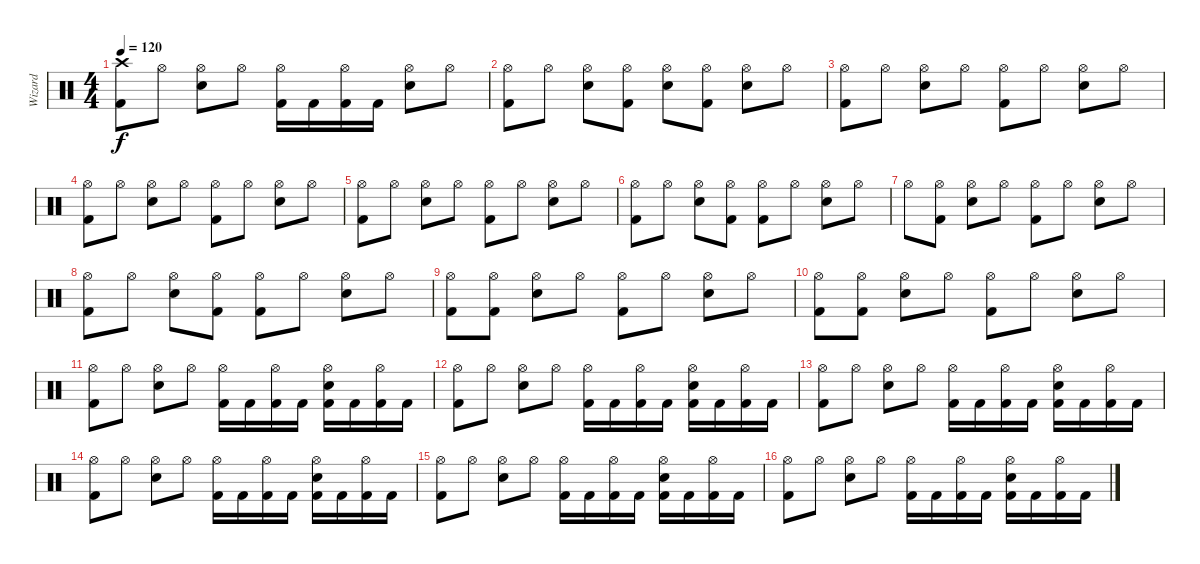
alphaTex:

\track ("Wizard" "Wizard") {instrument percussion}
\staff {score}
\articulation defaults
\ts (4 4)
\tempo 120
\clef neutral
\ks c
("Crash high (hit)" "Kick (hit) 2").8{dy f} "Hi-Hat (open)".8 ("Hi-Hat (open)" "Snare (hit) 2").8 "Hi-Hat (open)".8 ("Hi-Hat (open)" "Kick (hit) 2").16 "Kick (hit) 2".16 ("Hi-Hat (open)" "Kick (hit) 2").16 "Kick (hit) 2".16 ("Hi-Hat (open)" "Snare (hit) 2").8 "Hi-Hat (open)".8 |
("Hi-Hat (open)" "Kick (hit) 2").8 "Hi-Hat (open)".8 ("Hi-Hat (open)" "Snare (hit) 2").8 ("Hi-Hat (open)" "Kick (hit) 2").8 ("Hi-Hat (open)" "Snare (hit) 2").8 ("Hi-Hat (open)" "Kick (hit) 2").8 ("Hi-Hat (open)" "Snare (hit) 2").8 "Hi-Hat (open)".8 |
("Hi-Hat (open)" "Kick (hit) 2").8 "Hi-Hat (open)".8 ("Hi-Hat (open)" "Snare (hit) 2").8 "Hi-Hat (open)".8 ("Hi-Hat (open)" "Kick (hit) 2").8 "Hi-Hat (open)".8 ("Hi-Hat (open)" "Snare (hit) 2").8 "Hi-Hat (open)".8 |
("Hi-Hat (open)" "Kick (hit) 2").8 "Hi-Hat (open)".8 ("Hi-Hat (open)" "Snare (hit) 2").8 "Hi-Hat (open)".8 ("Hi-Hat (open)" "Kick (hit) 2").8 "Hi-Hat (open)".8 ("Hi-Hat (open)" "Snare (hit) 2").8 "Hi-Hat (open)".8 |
("Hi-Hat (open)" "Kick (hit) 2").8 "Hi-Hat (open)".8 ("Hi-Hat (open)" "Snare (hit) 2").8 "Hi-Hat (open)".8 ("Hi-Hat (open)" "Kick (hit) 2").8 "Hi-Hat (open)".8 ("Hi-Hat (open)" "Snare (hit) 2").8 "Hi-Hat (open)".8 |
("Hi-Hat (open)" "Kick (hit) 2").8 "Hi-Hat (open)".8 ("Hi-Hat (open)" "Snare (hit) 2").8 ("Hi-Hat (open)" "Kick (hit) 2").8 ("Hi-Hat (open)" "Kick (hit) 2").8 "Hi-Hat (open)".8 ("Hi-Hat (open)" "Snare (hit) 2").8 "Hi-Hat (open)".8 |
"Hi-Hat (open)".8 ("Hi-Hat (open)" "Kick (hit) 2").8 ("Hi-Hat (open)" "Snare (hit) 2").8 "Hi-Hat (open)".8 ("Hi-Hat (open)" "Kick (hit) 2").8 "Hi-Hat (open)".8 ("Hi-Hat (open)" "Snare (hit) 2").8 "Hi-Hat (open)".8 |
("Hi-Hat (open)" "Kick (hit) 2").8 "Hi-Hat (open)".8 ("Hi-Hat (open)" "Snare (hit) 2").8 ("Hi-Hat (open)" "Kick (hit) 2").8 ("Hi-Hat (open)" "Kick (hit) 2").8 "Hi-Hat (open)".8 ("Hi-Hat (open)" "Snare (hit) 2").8 "Hi-Hat (open)".8 |
("Hi-Hat (open)" "Kick (hit) 2").8 ("Hi-Hat (open)" "Kick (hit) 2").8 ("Hi-Hat (open)" "Snare (hit) 2").8 "Hi-Hat (open)".8 ("Hi-Hat (open)" "Kick (hit) 2").8 "Hi-Hat (open)".8 ("Hi-Hat (open)" "Snare (hit) 2").8 "Hi-Hat (open)".8 |
("Hi-Hat (open)" "Kick (hit) 2").8 ("Hi-Hat (open)" "Kick (hit) 2").8 ("Hi-Hat (open)" "Snare (hit) 2").8 "Hi-Hat (open)".8 ("Hi-Hat (open)" "Kick (hit) 2").8 "Hi-Hat (open)".8 ("Hi-Hat (open)" "Snare (hit) 2").8 "Hi-Hat (open)".8 |
("Hi-Hat (open)" "Kick (hit) 2").8 "Hi-Hat (open)".8 ("Hi-Hat (open)" "Snare (hit) 2").8 "Hi-Hat (open)".8 ("Hi-Hat (open)" "Kick (hit) 2").16 "Kick (hit) 2".16 ("Hi-Hat (open)" "Kick (hit) 2").16 "Kick (hit) 2".16 ("Hi-Hat (open)" "Snare (hit) 2" "Kick (hit) 2").16 "Kick (hit) 2".16 ("Hi-Hat (open)" "Kick (hit) 2").16 "Kick (hit) 2".16 |
("Hi-Hat (open)" "Kick (hit) 2").8 "Hi-Hat (open)".8 ("Hi-Hat (open)" "Snare (hit) 2").8 "Hi-Hat (open)".8 ("Hi-Hat (open)" "Kick (hit) 2").16 "Kick (hit) 2".16 ("Hi-Hat (open)" "Kick (hit) 2").16 "Kick (hit) 2".16 ("Hi-Hat (open)" "Snare (hit) 2" "Kick (hit) 2").16 "Kick (hit) 2".16 ("Hi-Hat (open)" "Kick (hit) 2").16 "Kick (hit) 2".16 |
("Hi-Hat (open)" "Kick (hit) 2").8 "Hi-Hat (open)".8 ("Hi-Hat (open)" "Snare (hit) 2").8 "Hi-Hat (open)".8 ("Hi-Hat (open)" "Kick (hit) 2").16 "Kick (hit) 2".16 ("Hi-Hat (open)" "Kick (hit) 2").16 "Kick (hit) 2".16 ("Hi-Hat (open)" "Snare (hit) 2" "Kick (hit) 2").16 "Kick (hit) 2".16 ("Hi-Hat (open)" "Kick (hit) 2").16 "Kick (hit) 2".16 |
("Hi-Hat (open)" "Kick (hit) 2").8 "Hi-Hat (open)".8 ("Hi-Hat (open)" "Snare (hit) 2").8 "Hi-Hat (open)".8 ("Hi-Hat (open)" "Kick (hit) 2").16 "Kick (hit) 2".16 ("Hi-Hat (open)" "Kick (hit) 2").16 "Kick (hit) 2".16 ("Hi-Hat (open)" "Snare (hit) 2" "Kick (hit) 2").16 "Kick (hit) 2".16 ("Hi-Hat (open)" "Kick (hit) 2").16 "Kick (hit) 2".16 |
("Hi-Hat (open)" "Kick (hit) 2").8 "Hi-Hat (open)".8 ("Hi-Hat (open)" "Snare (hit) 2").8 "Hi-Hat (open)".8 ("Hi-Hat (open)" "Kick (hit) 2").16 "Kick (hit) 2".16 ("Hi-Hat (open)" "Kick (hit) 2").16 "Kick (hit) 2".16 ("Hi-Hat (open)" "Snare (hit) 2" "Kick (hit) 2").16 "Kick (hit) 2".16 ("Hi-Hat (open)" "Kick (hit) 2").16 "Kick (hit) 2".16 |
("Hi-Hat (open)" "Kick (hit) 2").8 "Hi-Hat (open)".8 ("Hi-Hat (open)" "Snare (hit) 2").8 "Hi-Hat (open)".8 ("Hi-Hat (open)" "Kick (hit) 2").16 "Kick (hit) 2".16 ("Hi-Hat (open)" "Kick (hit) 2").16 "Kick (hit) 2".16 ("Hi-Hat (open)" "Snare (hit) 2" "Kick (hit) 2").16 "Kick (hit) 2".16 ("Hi-Hat (open)" "Kick (hit) 2").16 "Kick (hit) 2".16
